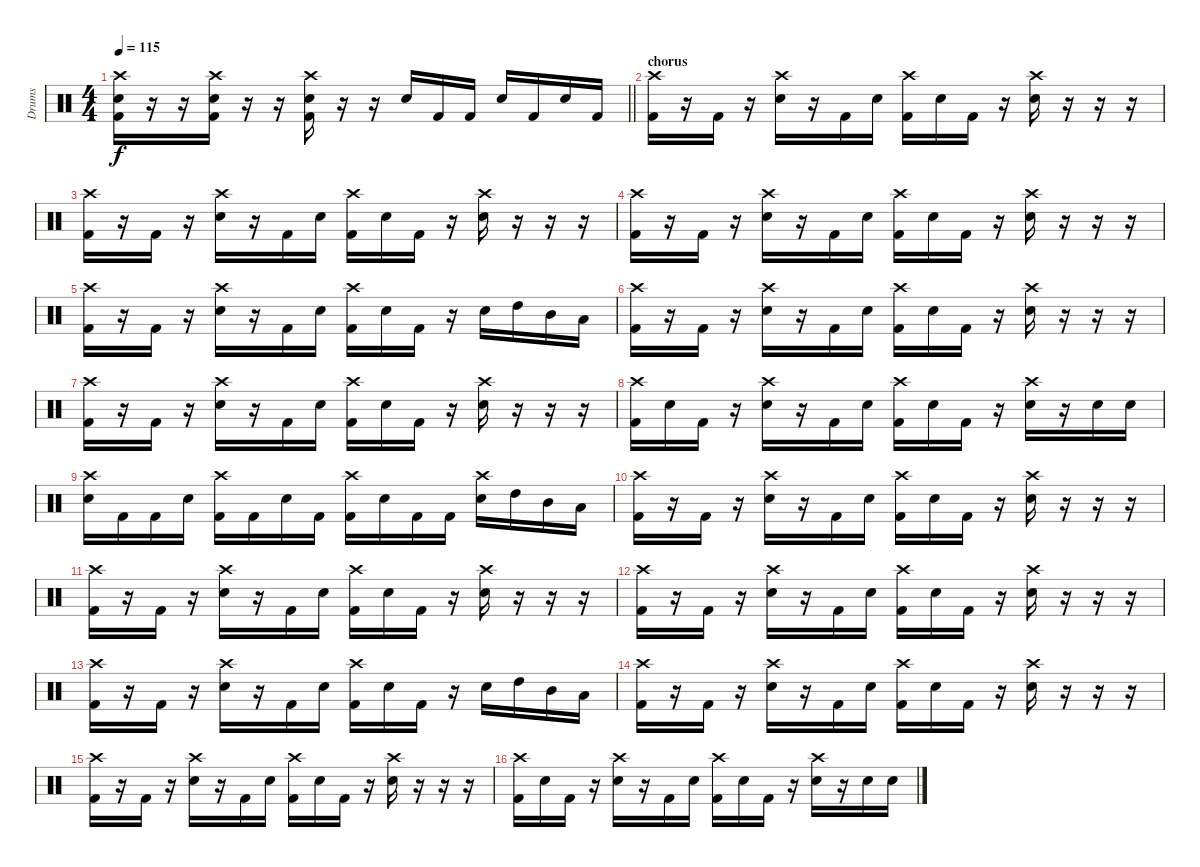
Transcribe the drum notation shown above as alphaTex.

\track ("Drums" "Drums") {instrument percussion}
\staff {score}
\articulation defaults
\ts (4 4)
\tempo 115
\clef neutral
\barLineRight lightlight
\ks c
("Crash high (hit)" "Snare (hit) 2" "Kick (hit) 2").16{dy f} r.16 r.16 ("Crash high (hit)" "Snare (hit) 2" "Kick (hit) 2").16 r.16 r.16 ("Crash high (hit)" "Snare (hit) 2" "Kick (hit) 2").16 r.16 r.16 "Snare (hit) 2".16 "Kick (hit) 2".16 "Kick (hit) 2".16 "Snare (hit) 2".16 "Kick (hit) 2".16 "Snare (hit) 2".16 "Kick (hit) 2".16 |
\section ("" "chorus")
("Crash high (hit)" "Kick (hit) 2").16 r.16 "Kick (hit) 2".16 r.16 ("Crash high (hit)" "Snare (hit) 2").16 r.16 "Kick (hit) 2".16 "Snare (hit) 2".16 ("Crash high (hit)" "Kick (hit) 2").16 "Snare (hit) 2".16 "Kick (hit) 2".16 r.16 ("Crash high (hit)" "Snare (hit) 2").16 r.16 r.16 r.16 |
("Crash high (hit)" "Kick (hit) 2").16 r.16 "Kick (hit) 2".16 r.16 ("Crash high (hit)" "Snare (hit) 2").16 r.16 "Kick (hit) 2".16 "Snare (hit) 2".16 ("Crash high (hit)" "Kick (hit) 2").16 "Snare (hit) 2".16 "Kick (hit) 2".16 r.16 ("Crash high (hit)" "Snare (hit) 2").16 r.16 r.16 r.16 |
("Crash high (hit)" "Kick (hit) 2").16 r.16 "Kick (hit) 2".16 r.16 ("Crash high (hit)" "Snare (hit) 2").16 r.16 "Kick (hit) 2".16 "Snare (hit) 2".16 ("Crash high (hit)" "Kick (hit) 2").16 "Snare (hit) 2".16 "Kick (hit) 2".16 r.16 ("Crash high (hit)" "Snare (hit) 2").16 r.16 r.16 r.16 |
("Crash high (hit)" "Kick (hit) 2").16 r.16 "Kick (hit) 2".16 r.16 ("Crash high (hit)" "Snare (hit) 2").16 r.16 "Kick (hit) 2".16 "Snare (hit) 2".16 ("Crash high (hit)" "Kick (hit) 2").16 "Snare (hit) 2".16 "Kick (hit) 2".16 r.16 "Snare (hit) 2".16 "High Tom (hit)".16 "Mid Tom (hit)".16 "Low Tom (hit)".16 |
("Crash high (hit)" "Kick (hit) 2").16 r.16 "Kick (hit) 2".16 r.16 ("Crash high (hit)" "Snare (hit) 2").16 r.16 "Kick (hit) 2".16 "Snare (hit) 2".16 ("Crash high (hit)" "Kick (hit) 2").16 "Snare (hit) 2".16 "Kick (hit) 2".16 r.16 ("Crash high (hit)" "Snare (hit) 2").16 r.16 r.16 r.16 |
("Crash high (hit)" "Kick (hit) 2").16 r.16 "Kick (hit) 2".16 r.16 ("Crash high (hit)" "Snare (hit) 2").16 r.16 "Kick (hit) 2".16 "Snare (hit) 2".16 ("Crash high (hit)" "Kick (hit) 2").16 "Snare (hit) 2".16 "Kick (hit) 2".16 r.16 ("Crash high (hit)" "Snare (hit) 2").16 r.16 r.16 r.16 |
("Crash high (hit)" "Kick (hit) 2").16 "Snare (hit) 2".16 "Kick (hit) 2".16 r.16 ("Crash high (hit)" "Snare (hit) 2").16 r.16 "Kick (hit) 2".16 "Snare (hit) 2".16 ("Crash high (hit)" "Kick (hit) 2").16 "Snare (hit) 2".16 "Kick (hit) 2".16 r.16 ("Crash high (hit)" "Snare (hit) 2").16 r.16 "Snare (hit) 2".16 "Snare (hit) 2".16 |
("Crash high (hit)" "Snare (hit) 2").16 "Kick (hit) 2".16 "Kick (hit) 2".16 "Snare (hit) 2".16 ("Crash high (hit)" "Kick (hit) 2").16 "Kick (hit) 2".16 "Snare (hit) 2".16 "Kick (hit) 2".16 ("Crash high (hit)" "Kick (hit) 2").16 "Snare (hit) 2".16 "Kick (hit) 2".16 "Kick (hit) 2".16 ("Crash high (hit)" "Snare (hit) 2").16 "High Tom (hit)".16 "Mid Tom (hit)".16 "Low Tom (hit)".16 |
("Crash high (hit)" "Kick (hit) 2").16 r.16 "Kick (hit) 2".16 r.16 ("Crash high (hit)" "Snare (hit) 2").16 r.16 "Kick (hit) 2".16 "Snare (hit) 2".16 ("Crash high (hit)" "Kick (hit) 2").16 "Snare (hit) 2".16 "Kick (hit) 2".16 r.16 ("Crash high (hit)" "Snare (hit) 2").16 r.16 r.16 r.16 |
("Crash high (hit)" "Kick (hit) 2").16 r.16 "Kick (hit) 2".16 r.16 ("Crash high (hit)" "Snare (hit) 2").16 r.16 "Kick (hit) 2".16 "Snare (hit) 2".16 ("Crash high (hit)" "Kick (hit) 2").16 "Snare (hit) 2".16 "Kick (hit) 2".16 r.16 ("Crash high (hit)" "Snare (hit) 2").16 r.16 r.16 r.16 |
("Crash high (hit)" "Kick (hit) 2").16 r.16 "Kick (hit) 2".16 r.16 ("Crash high (hit)" "Snare (hit) 2").16 r.16 "Kick (hit) 2".16 "Snare (hit) 2".16 ("Crash high (hit)" "Kick (hit) 2").16 "Snare (hit) 2".16 "Kick (hit) 2".16 r.16 ("Crash high (hit)" "Snare (hit) 2").16 r.16 r.16 r.16 |
("Crash high (hit)" "Kick (hit) 2").16 r.16 "Kick (hit) 2".16 r.16 ("Crash high (hit)" "Snare (hit) 2").16 r.16 "Kick (hit) 2".16 "Snare (hit) 2".16 ("Crash high (hit)" "Kick (hit) 2").16 "Snare (hit) 2".16 "Kick (hit) 2".16 r.16 "Snare (hit) 2".16 "High Tom (hit)".16 "Mid Tom (hit)".16 "Low Tom (hit)".16 |
("Crash high (hit)" "Kick (hit) 2").16 r.16 "Kick (hit) 2".16 r.16 ("Crash high (hit)" "Snare (hit) 2").16 r.16 "Kick (hit) 2".16 "Snare (hit) 2".16 ("Crash high (hit)" "Kick (hit) 2").16 "Snare (hit) 2".16 "Kick (hit) 2".16 r.16 ("Crash high (hit)" "Snare (hit) 2").16 r.16 r.16 r.16 |
("Crash high (hit)" "Kick (hit) 2").16 r.16 "Kick (hit) 2".16 r.16 ("Crash high (hit)" "Snare (hit) 2").16 r.16 "Kick (hit) 2".16 "Snare (hit) 2".16 ("Crash high (hit)" "Kick (hit) 2").16 "Snare (hit) 2".16 "Kick (hit) 2".16 r.16 ("Crash high (hit)" "Snare (hit) 2").16 r.16 r.16 r.16 |
("Crash high (hit)" "Kick (hit) 2").16 "Snare (hit) 2".16 "Kick (hit) 2".16 r.16 ("Crash high (hit)" "Snare (hit) 2").16 r.16 "Kick (hit) 2".16 "Snare (hit) 2".16 ("Crash high (hit)" "Kick (hit) 2").16 "Snare (hit) 2".16 "Kick (hit) 2".16 r.16 ("Crash high (hit)" "Snare (hit) 2").16 r.16 "Snare (hit) 2".16 "Snare (hit) 2".16
